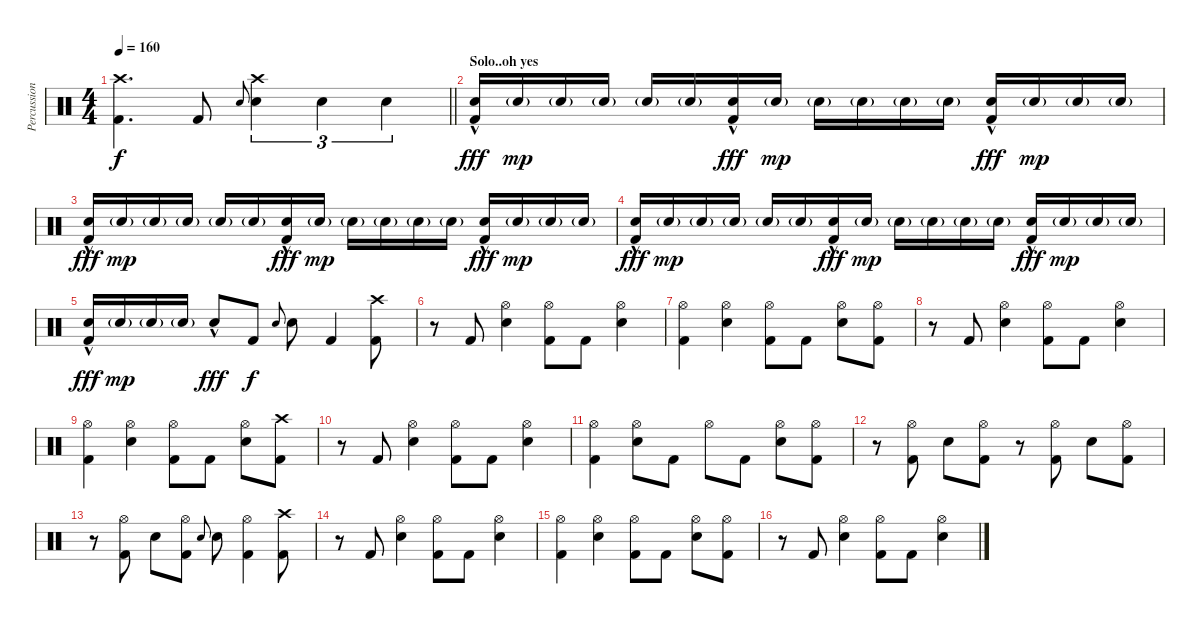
\track ("Percussion" "Percussion") {instrument percussion}
\staff {score}
\articulation defaults
\ts (4 4)
\tempo 160
\clef neutral
\barLineRight lightlight
\ks c
("Crash high (hit)" "Kick (hit) 2").4{d dy f} "Kick (hit) 2".8 "Electric Snare (hit)".8{gr onbeat} ("Crash high (hit)" "Electric Snare (hit)").4{tu (3 2)} "Electric Snare (hit)".4{tu (3 2)} "Electric Snare (hit)".4{tu (3 2)} |
\section ("" "Solo..oh yes")
("Electric Snare (hit)"{hac} "Kick (hit) 2").16{dy fff} "Electric Snare (hit)"{g}.16{dy mp} "Electric Snare (hit)"{g}.16 "Electric Snare (hit)"{g}.16 "Electric Snare (hit)"{g}.16 "Electric Snare (hit)"{g}.16 ("Electric Snare (hit)"{hac} "Kick (hit) 2").16{dy fff} "Electric Snare (hit)"{g}.16{dy mp} "Electric Snare (hit)"{g}.16 "Electric Snare (hit)"{g}.16 "Electric Snare (hit)"{g}.16 "Electric Snare (hit)"{g}.16 ("Electric Snare (hit)"{hac} "Kick (hit) 2").16{dy fff} "Electric Snare (hit)"{g}.16{dy mp} "Electric Snare (hit)"{g}.16 "Electric Snare (hit)"{g}.16 |
("Electric Snare (hit)"{hac} "Kick (hit) 2").16{dy fff} "Electric Snare (hit)"{g}.16{dy mp} "Electric Snare (hit)"{g}.16 "Electric Snare (hit)"{g}.16 "Electric Snare (hit)"{g}.16 "Electric Snare (hit)"{g}.16 ("Electric Snare (hit)"{hac} "Kick (hit) 2").16{dy fff} "Electric Snare (hit)"{g}.16{dy mp} "Electric Snare (hit)"{g}.16 "Electric Snare (hit)"{g}.16 "Electric Snare (hit)"{g}.16 "Electric Snare (hit)"{g}.16 ("Electric Snare (hit)"{hac} "Kick (hit) 2").16{dy fff} "Electric Snare (hit)"{g}.16{dy mp} "Electric Snare (hit)"{g}.16 "Electric Snare (hit)"{g}.16 |
("Electric Snare (hit)"{hac} "Kick (hit) 2").16{dy fff} "Electric Snare (hit)"{g}.16{dy mp} "Electric Snare (hit)"{g}.16 "Electric Snare (hit)"{g}.16 "Electric Snare (hit)"{g}.16 "Electric Snare (hit)"{g}.16 ("Electric Snare (hit)"{hac} "Kick (hit) 2").16{dy fff} "Electric Snare (hit)"{g}.16{dy mp} "Electric Snare (hit)"{g}.16 "Electric Snare (hit)"{g}.16 "Electric Snare (hit)"{g}.16 "Electric Snare (hit)"{g}.16 ("Electric Snare (hit)"{hac} "Kick (hit) 2").16{dy fff} "Electric Snare (hit)"{g}.16{dy mp} "Electric Snare (hit)"{g}.16 "Electric Snare (hit)"{g}.16 |
("Electric Snare (hit)"{hac} "Kick (hit) 2").16{dy fff} "Electric Snare (hit)"{g}.16{dy mp} "Electric Snare (hit)"{g}.16 "Electric Snare (hit)"{g}.16 "Electric Snare (hit)"{hac}.8{dy fff} "Kick (hit) 2".8{dy f} "Electric Snare (hit)".8{gr onbeat} "Electric Snare (hit)".8 "Kick (hit) 2".4 ("Crash high (hit)" "Kick (hit) 2").8 |
r.8 "Kick (hit) 2".8 ("Hi-Hat (open)" "Electric Snare (hit)").4 ("Hi-Hat (open)" "Kick (hit) 2").8 "Kick (hit) 2".8 ("Hi-Hat (open)" "Electric Snare (hit)").4 |
("Hi-Hat (open)" "Kick (hit) 2").4 ("Hi-Hat (open)" "Electric Snare (hit)").4 ("Hi-Hat (open)" "Kick (hit) 2").8 "Kick (hit) 2".8 ("Hi-Hat (open)" "Electric Snare (hit)").8 ("Hi-Hat (open)" "Kick (hit) 2").8 |
r.8 "Kick (hit) 2".8 ("Hi-Hat (open)" "Electric Snare (hit)").4 ("Hi-Hat (open)" "Kick (hit) 2").8 "Kick (hit) 2".8 ("Hi-Hat (open)" "Electric Snare (hit)").4 |
("Hi-Hat (open)" "Kick (hit) 2").4 ("Hi-Hat (open)" "Electric Snare (hit)").4 ("Hi-Hat (open)" "Kick (hit) 2").8 "Kick (hit) 2".8 ("Hi-Hat (open)" "Electric Snare (hit)").8 ("Crash high (hit)" "Kick (hit) 2").8 |
r.8 "Kick (hit) 2".8 ("Hi-Hat (open)" "Electric Snare (hit)").4 ("Hi-Hat (open)" "Kick (hit) 2").8 "Kick (hit) 2".8 ("Hi-Hat (open)" "Electric Snare (hit)").4 |
("Hi-Hat (open)" "Kick (hit) 2").4 ("Hi-Hat (open)" "Electric Snare (hit)").8 "Kick (hit) 2".8 "Hi-Hat (open)".8 "Kick (hit) 2".8 ("Hi-Hat (open)" "Electric Snare (hit)").8 ("Hi-Hat (open)" "Kick (hit) 2").8 |
r.8 ("Hi-Hat (open)" "Kick (hit) 2").8 "Electric Snare (hit)".8 ("Hi-Hat (open)" "Kick (hit) 2").8 r.8 ("Hi-Hat (open)" "Kick (hit) 2").8 "Electric Snare (hit)".8 ("Hi-Hat (open)" "Kick (hit) 2").8 |
r.8 ("Hi-Hat (open)" "Kick (hit) 2").8 "Electric Snare (hit)".8 ("Hi-Hat (open)" "Kick (hit) 2").8 "Electric Snare (hit)".8{gr onbeat} "Electric Snare (hit)".8 ("Hi-Hat (open)" "Kick (hit) 2").4 ("Crash high (hit)" "Kick (hit) 2").8 |
r.8 "Kick (hit) 2".8 ("Hi-Hat (open)" "Electric Snare (hit)").4 ("Hi-Hat (open)" "Kick (hit) 2").8 "Kick (hit) 2".8 ("Hi-Hat (open)" "Electric Snare (hit)").4 |
("Hi-Hat (open)" "Kick (hit) 2").4 ("Hi-Hat (open)" "Electric Snare (hit)").4 ("Hi-Hat (open)" "Kick (hit) 2").8 "Kick (hit) 2".8 ("Hi-Hat (open)" "Electric Snare (hit)").8 ("Hi-Hat (open)" "Kick (hit) 2").8 |
r.8 "Kick (hit) 2".8 ("Hi-Hat (open)" "Electric Snare (hit)").4 ("Hi-Hat (open)" "Kick (hit) 2").8 "Kick (hit) 2".8 ("Hi-Hat (open)" "Electric Snare (hit)").4
